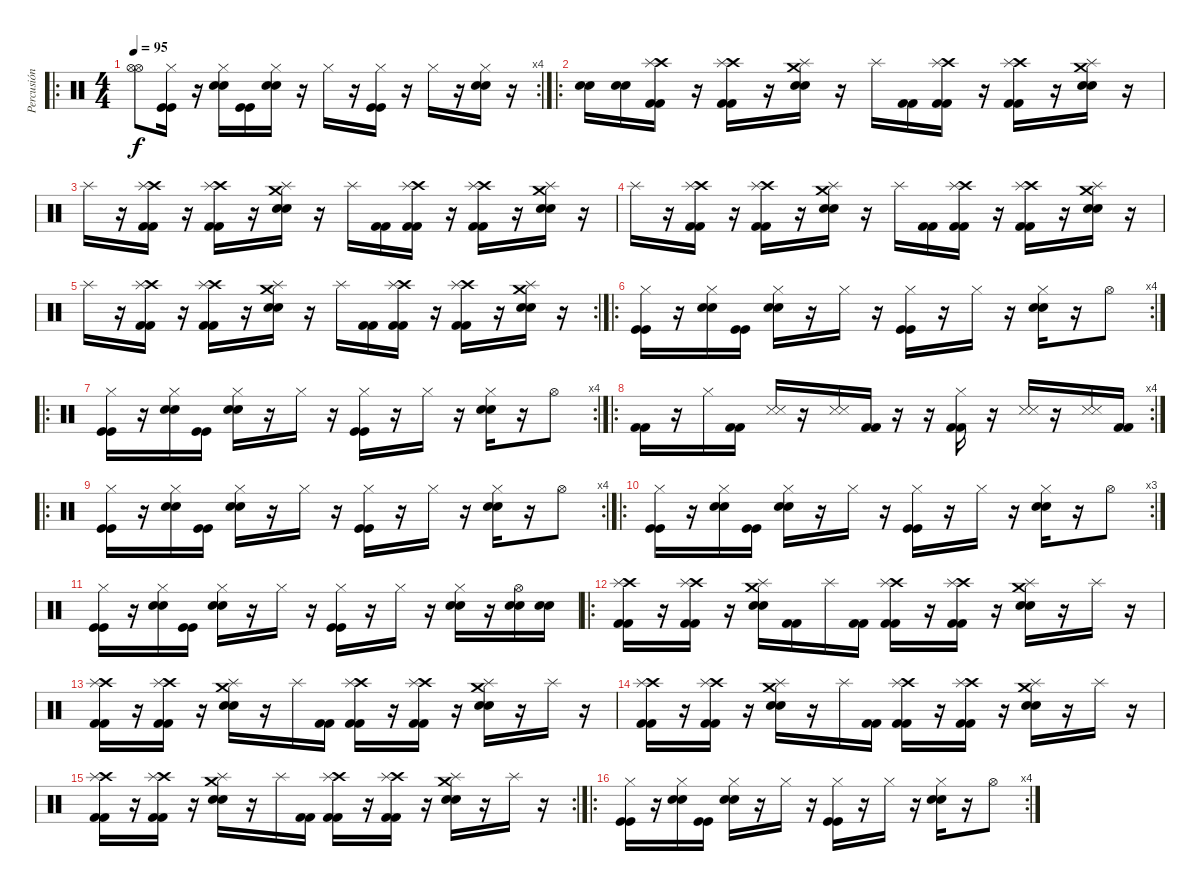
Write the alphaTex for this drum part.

\track ("Percusión" "Percusión") {instrument percussion}
\staff {score}
\articulation defaults
\ro
\rc 4
\ts (4 4)
\tempo 95
\clef neutral
\ks c
("Hi-Hat (open)" "Hi-Hat (open)").8{dy f} ("Hi-Hat (closed)" "Kick (hit)" "Kick (hit)").16 r.16 ("Hi-Hat (closed)" "Snare (hit)" "Snare (hit)").16 ("Kick (hit)" "Kick (hit)").16 ("Hi-Hat (closed)" "Snare (hit) 2" "Snare (hit) 2").16 r.16 "Hi-Hat (closed)".16 r.16 ("Hi-Hat (closed)" "Kick (hit)" "Kick (hit)").16 r.16 "Hi-Hat (closed)".16 r.16 ("Hi-Hat (closed)" "Snare (hit) 2" "Snare (hit) 2").16 r.16 |
\ro
("Electric Snare (hit)" "Electric Snare (hit)").16 ("Electric Snare (hit)" "Electric Snare (hit)").16 ("Crash high (hit)" "Splash (hit)" "Kick (hit) 2" "Kick (hit) 2").16 r.16 ("Crash high (hit)" "Splash (hit)" "Kick (hit) 2" "Kick (hit) 2").16 r.16 ("Crash medium (hit)" "Splash (hit)" "Electric Snare (hit)" "Electric Snare (hit)").16 r.16 "Splash (hit)".16 ("Kick (hit) 2" "Kick (hit) 2").16 ("Crash high (hit)" "Splash (hit)" "Kick (hit) 2" "Kick (hit) 2").16 r.16 ("Crash high (hit)" "Splash (hit)" "Kick (hit) 2" "Kick (hit) 2").16 r.16 ("Crash medium (hit)" "Splash (hit)" "Electric Snare (hit)" "Electric Snare (hit)").16 r.16 |
"Splash (hit)".16 r.16 ("Crash high (hit)" "Splash (hit)" "Kick (hit) 2" "Kick (hit) 2").16 r.16 ("Crash high (hit)" "Splash (hit)" "Kick (hit) 2" "Kick (hit) 2").16 r.16 ("Crash medium (hit)" "Splash (hit)" "Electric Snare (hit)" "Electric Snare (hit)").16 r.16 "Splash (hit)".16 ("Kick (hit) 2" "Kick (hit) 2").16 ("Crash high (hit)" "Splash (hit)" "Kick (hit) 2" "Kick (hit) 2").16 r.16 ("Crash high (hit)" "Splash (hit)" "Kick (hit) 2" "Kick (hit) 2").16 r.16 ("Crash medium (hit)" "Splash (hit)" "Electric Snare (hit)" "Electric Snare (hit)").16 r.16 |
"Splash (hit)".16 r.16 ("Crash high (hit)" "Splash (hit)" "Kick (hit) 2" "Kick (hit) 2").16 r.16 ("Crash high (hit)" "Splash (hit)" "Kick (hit) 2" "Kick (hit) 2").16 r.16 ("Crash medium (hit)" "Splash (hit)" "Electric Snare (hit)" "Electric Snare (hit)").16 r.16 "Splash (hit)".16 ("Kick (hit) 2" "Kick (hit) 2").16 ("Crash high (hit)" "Splash (hit)" "Kick (hit) 2" "Kick (hit) 2").16 r.16 ("Crash high (hit)" "Splash (hit)" "Kick (hit) 2" "Kick (hit) 2").16 r.16 ("Crash medium (hit)" "Splash (hit)" "Electric Snare (hit)" "Electric Snare (hit)").16 r.16 |
\rc 2 "Splash (hit)".16
r.16 ("Crash high (hit)" "Splash (hit)" "Kick (hit) 2" "Kick (hit) 2").16 r.16 ("Crash high (hit)" "Splash (hit)" "Kick (hit) 2" "Kick (hit) 2").16 r.16 ("Crash medium (hit)" "Splash (hit)" "Electric Snare (hit)" "Electric Snare (hit)").16 r.16 "Splash (hit)".16 ("Kick (hit) 2" "Kick (hit) 2").16 ("Crash high (hit)" "Splash (hit)" "Kick (hit) 2" "Kick (hit) 2").16 r.16 ("Crash high (hit)" "Splash (hit)" "Kick (hit) 2" "Kick (hit) 2").16 r.16 ("Crash medium (hit)" "Splash (hit)" "Electric Snare (hit)" "Electric Snare (hit)").16 r.16 |
\ro
\rc 4
("Hi-Hat (closed)" "Kick (hit)" "Kick (hit)").16 r.16 ("Hi-Hat (closed)" "Snare (hit)" "Snare (hit)").16 ("Kick (hit)" "Kick (hit)").16 ("Hi-Hat (closed)" "Snare (hit) 2" "Snare (hit) 2").16 r.16 "Hi-Hat (closed)".16 r.16 ("Hi-Hat (closed)" "Kick (hit)" "Kick (hit)").16 r.16 "Hi-Hat (closed)".16 r.16 ("Hi-Hat (closed)" "Snare (hit) 2" "Snare (hit) 2").16 r.16 "Hi-Hat (open)".8 |
\ro
\rc 4
("Hi-Hat (closed)" "Kick (hit)" "Kick (hit)").16 r.16 ("Hi-Hat (closed)" "Snare (hit)" "Snare (hit)").16 ("Kick (hit)" "Kick (hit)").16 ("Hi-Hat (closed)" "Snare (hit) 2" "Snare (hit) 2").16 r.16 "Hi-Hat (closed)".16 r.16 ("Hi-Hat (closed)" "Kick (hit)" "Kick (hit)").16 r.16 "Hi-Hat (closed)".16 r.16 ("Hi-Hat (closed)" "Snare (hit) 2" "Snare (hit) 2").16 r.16 "Hi-Hat (open)".8 |
\ro
\rc 4
("Kick (hit) 2" "Kick (hit) 2").16 r.16 "Hi-Hat (closed)".16 ("Kick (hit) 2" "Kick (hit) 2").16 ("Snare (side stick) 3" "Snare (side stick) 3").16 r.16 ("Snare (side stick) 3" "Snare (side stick) 3").16 ("Kick (hit) 2" "Kick (hit) 2").16 r.16 r.16 ("Hi-Hat (closed)" "Kick (hit) 2" "Kick (hit) 2").16 r.16 ("Snare (side stick) 3" "Snare (side stick) 3").16 r.16 ("Snare (side stick) 3" "Snare (side stick) 3").16 ("Kick (hit) 2" "Kick (hit) 2").16 |
\ro
\rc 4
("Hi-Hat (closed)" "Kick (hit)" "Kick (hit)").16 r.16 ("Hi-Hat (closed)" "Snare (hit)" "Snare (hit)").16 ("Kick (hit)" "Kick (hit)").16 ("Hi-Hat (closed)" "Snare (hit) 2" "Snare (hit) 2").16 r.16 "Hi-Hat (closed)".16 r.16 ("Hi-Hat (closed)" "Kick (hit)" "Kick (hit)").16 r.16 "Hi-Hat (closed)".16 r.16 ("Hi-Hat (closed)" "Snare (hit) 2" "Snare (hit) 2").16 r.16 "Hi-Hat (open)".8 |
\ro
\rc 3
("Hi-Hat (closed)" "Kick (hit)" "Kick (hit)").16 r.16 ("Hi-Hat (closed)" "Snare (hit)" "Snare (hit)").16 ("Kick (hit)" "Kick (hit)").16 ("Hi-Hat (closed)" "Snare (hit) 2" "Snare (hit) 2").16 r.16 "Hi-Hat (closed)".16 r.16 ("Hi-Hat (closed)" "Kick (hit)" "Kick (hit)").16 r.16 "Hi-Hat (closed)".16 r.16 ("Hi-Hat (closed)" "Snare (hit) 2" "Snare (hit) 2").16 r.16 "Hi-Hat (open)".8 |
("Hi-Hat (closed)" "Kick (hit)" "Kick (hit)").16 r.16 ("Hi-Hat (closed)" "Snare (hit)" "Snare (hit)").16 ("Kick (hit)" "Kick (hit)").16 ("Hi-Hat (closed)" "Snare (hit) 2" "Snare (hit) 2").16 r.16 "Hi-Hat (closed)".16 r.16 ("Hi-Hat (closed)" "Kick (hit)" "Kick (hit)").16 r.16 "Hi-Hat (closed)".16 r.16 ("Hi-Hat (closed)" "Electric Snare (hit)" "Electric Snare (hit)").16 r.16 ("Hi-Hat (open)" "Electric Snare (hit)" "Electric Snare (hit)").16 ("Electric Snare (hit)" "Electric Snare (hit)").16 |
\ro
("Crash high (hit)" "Splash (hit)" "Kick (hit) 2" "Kick (hit) 2").16 r.16 ("Crash high (hit)" "Splash (hit)" "Kick (hit) 2" "Kick (hit) 2").16 r.16 ("Crash medium (hit)" "Splash (hit)" "Electric Snare (hit)" "Electric Snare (hit)").16 ("Kick (hit) 2" "Kick (hit) 2").16 "Splash (hit)".16 ("Kick (hit) 2" "Kick (hit) 2").16 ("Crash high (hit)" "Splash (hit)" "Kick (hit) 2" "Kick (hit) 2").16 r.16 ("Crash high (hit)" "Splash (hit)" "Kick (hit) 2" "Kick (hit) 2").16 r.16 ("Crash medium (hit)" "Splash (hit)" "Electric Snare (hit)" "Electric Snare (hit)").16 r.16 "Splash (hit)".16 r.16 |
("Crash high (hit)" "Splash (hit)" "Kick (hit) 2" "Kick (hit) 2").16 r.16 ("Crash high (hit)" "Splash (hit)" "Kick (hit) 2" "Kick (hit) 2").16 r.16 ("Crash medium (hit)" "Splash (hit)" "Electric Snare (hit)" "Electric Snare (hit)").16 r.16 "Splash (hit)".16 ("Kick (hit) 2" "Kick (hit) 2").16 ("Crash high (hit)" "Splash (hit)" "Kick (hit) 2" "Kick (hit) 2").16 r.16 ("Crash high (hit)" "Splash (hit)" "Kick (hit) 2" "Kick (hit) 2").16 r.16 ("Crash medium (hit)" "Splash (hit)" "Electric Snare (hit)" "Electric Snare (hit)").16 r.16 "Splash (hit)".16 r.16 |
("Crash high (hit)" "Splash (hit)" "Kick (hit) 2" "Kick (hit) 2").16 r.16 ("Crash high (hit)" "Splash (hit)" "Kick (hit) 2" "Kick (hit) 2").16 r.16 ("Crash medium (hit)" "Splash (hit)" "Electric Snare (hit)" "Electric Snare (hit)").16 r.16 "Splash (hit)".16 ("Kick (hit) 2" "Kick (hit) 2").16 ("Crash high (hit)" "Splash (hit)" "Kick (hit) 2" "Kick (hit) 2").16 r.16 ("Crash high (hit)" "Splash (hit)" "Kick (hit) 2" "Kick (hit) 2").16 r.16 ("Crash medium (hit)" "Splash (hit)" "Electric Snare (hit)" "Electric Snare (hit)").16 r.16 "Splash (hit)".16 r.16 |
\rc 2
("Crash high (hit)" "Splash (hit)" "Kick (hit) 2" "Kick (hit) 2").16 r.16 ("Crash high (hit)" "Splash (hit)" "Kick (hit) 2" "Kick (hit) 2").16 r.16 ("Crash medium (hit)" "Splash (hit)" "Electric Snare (hit)" "Electric Snare (hit)").16 r.16 "Splash (hit)".16 ("Kick (hit) 2" "Kick (hit) 2").16 ("Crash high (hit)" "Splash (hit)" "Kick (hit) 2" "Kick (hit) 2").16 r.16 ("Crash high (hit)" "Splash (hit)" "Kick (hit) 2" "Kick (hit) 2").16 r.16 ("Crash medium (hit)" "Splash (hit)" "Electric Snare (hit)" "Electric Snare (hit)").16 r.16 "Splash (hit)".16 r.16 |
\ro
\rc 4
("Hi-Hat (closed)" "Kick (hit)" "Kick (hit)").16 r.16 ("Hi-Hat (closed)" "Snare (hit)" "Snare (hit)").16 ("Kick (hit)" "Kick (hit)").16 ("Hi-Hat (closed)" "Snare (hit) 2" "Snare (hit) 2").16 r.16 "Hi-Hat (closed)".16 r.16 ("Hi-Hat (closed)" "Kick (hit)" "Kick (hit)").16 r.16 "Hi-Hat (closed)".16 r.16 ("Hi-Hat (closed)" "Snare (hit) 2" "Snare (hit) 2").16 r.16 "Hi-Hat (open)".8
